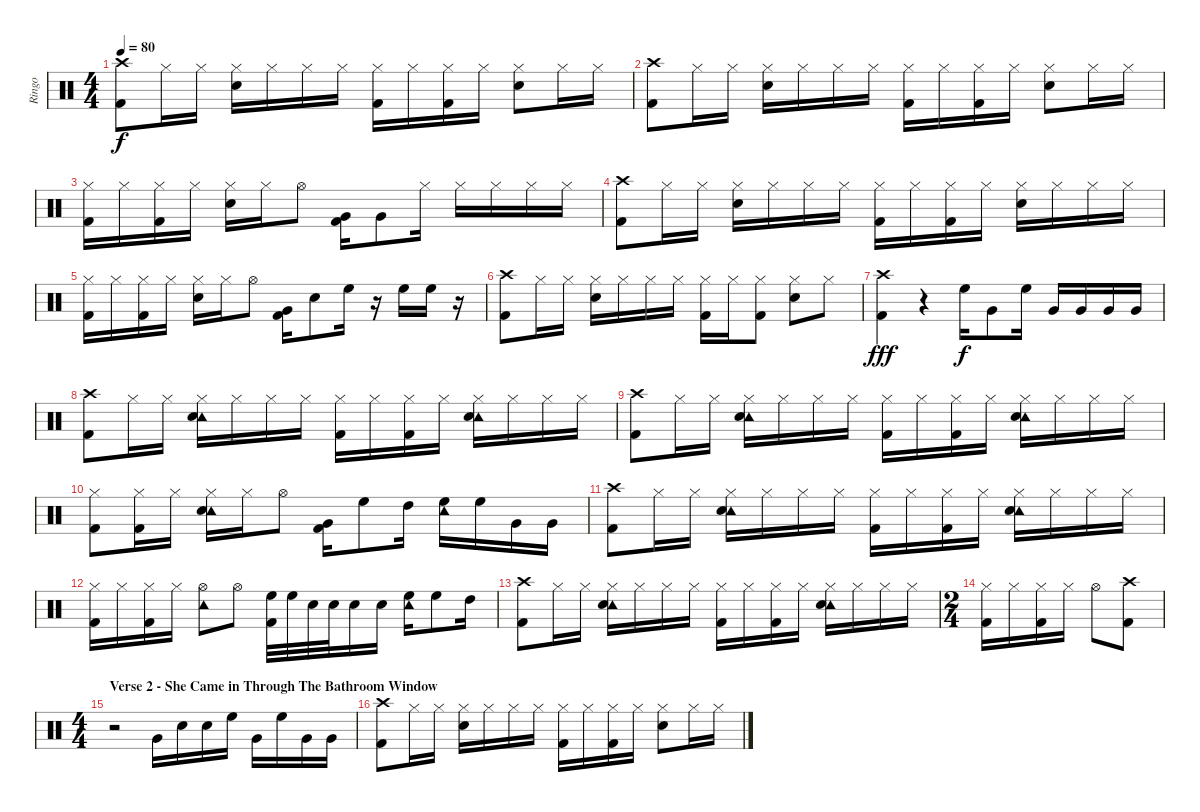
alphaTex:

\track ("Ringo" "Ringo") {instrument percussion}
\staff {score}
\articulation defaults
\ts (4 4)
\tempo 80
\clef neutral
\ks c
("Crash high (hit)" "Kick (hit) 2").8{dy f} "Hi-Hat (closed)".16 "Hi-Hat (closed)".16 ("Hi-Hat (closed)" "Snare (hit) 2").16 "Hi-Hat (closed)".16 "Hi-Hat (closed)".16 "Hi-Hat (closed)".16 ("Hi-Hat (closed)" "Kick (hit) 2").16 "Hi-Hat (closed)".16 ("Hi-Hat (closed)" "Kick (hit) 2").16 "Hi-Hat (closed)".16 ("Hi-Hat (closed)" "Snare (hit) 2").8 "Hi-Hat (closed)".16 "Hi-Hat (closed)".16 |
("Crash high (hit)" "Kick (hit) 2").8 "Hi-Hat (closed)".16 "Hi-Hat (closed)".16 ("Hi-Hat (closed)" "Snare (hit) 2").16 "Hi-Hat (closed)".16 "Hi-Hat (closed)".16 "Hi-Hat (closed)".16 ("Hi-Hat (closed)" "Kick (hit) 2").16 "Hi-Hat (closed)".16 ("Hi-Hat (closed)" "Kick (hit) 2").16 "Hi-Hat (closed)".16 ("Hi-Hat (closed)" "Snare (hit) 2").8 "Hi-Hat (closed)".16 "Hi-Hat (closed)".16 |
("Hi-Hat (closed)" "Kick (hit) 2").16 "Hi-Hat (closed)".16 ("Hi-Hat (closed)" "Kick (hit) 2").16 "Hi-Hat (closed)".16 ("Hi-Hat (closed)" "Snare (hit) 2").16 "Hi-Hat (closed)".16 "Hi-Hat (open)".8 ("Very Low Tom (hit)" "Kick (hit) 2").16 "Very Low Tom (hit)".8 "Hi-Hat (closed)".16 "Hi-Hat (closed)".16 "Hi-Hat (closed)".16 "Hi-Hat (closed)".16 "Hi-Hat (closed)".16 |
("Crash high (hit)" "Kick (hit) 2").8 "Hi-Hat (closed)".16 "Hi-Hat (closed)".16 ("Hi-Hat (closed)" "Snare (hit) 2").16 "Hi-Hat (closed)".16 "Hi-Hat (closed)".16 "Hi-Hat (closed)".16 ("Hi-Hat (closed)" "Kick (hit) 2").16 "Hi-Hat (closed)".16 ("Hi-Hat (closed)" "Kick (hit) 2").16 "Hi-Hat (closed)".16 ("Hi-Hat (closed)" "Snare (hit) 2").16 "Hi-Hat (closed)".16 "Hi-Hat (closed)".16 "Hi-Hat (closed)".16 |
("Hi-Hat (closed)" "Kick (hit) 2").16 "Hi-Hat (closed)".16 ("Hi-Hat (closed)" "Kick (hit) 2").16 "Hi-Hat (closed)".16 ("Hi-Hat (closed)" "Snare (hit) 2").16 "Hi-Hat (closed)".16 "Hi-Hat (open)".8 ("Very Low Tom (hit)" "Kick (hit) 2").16 "Snare (hit) 2".8 "High Floor Tom (hit)".16 r.16 "High Floor Tom (hit)".16 "High Floor Tom (hit)".16 r.16 |
("Crash high (hit)" "Kick (hit) 2").8 "Hi-Hat (closed)".16 "Hi-Hat (closed)".16 ("Hi-Hat (closed)" "Snare (hit) 2").16 "Hi-Hat (closed)".16 "Hi-Hat (closed)".16 "Hi-Hat (closed)".16 ("Hi-Hat (closed)" "Kick (hit) 2").16 "Hi-Hat (closed)".16 ("Hi-Hat (closed)" "Kick (hit) 2").8 ("Hi-Hat (closed)" "Snare (hit) 2").8 "Hi-Hat (closed)".8 |
("Crash high (hit)" "Kick (hit) 2").4{dy fff} r.4 "High Floor Tom (hit)".16{dy f} "Very Low Tom (hit)".8 "High Floor Tom (hit)".16 "Very Low Tom (hit)".16 "Very Low Tom (hit)".16 "Very Low Tom (hit)".16 "Very Low Tom (hit)".16 |
("Crash high (hit)" "Kick (hit) 2").8 "Hi-Hat (closed)".16 "Hi-Hat (closed)".16 ("Tambourine (hit)" "Hi-Hat (closed)" "Snare (hit) 2").16 "Hi-Hat (closed)".16 "Hi-Hat (closed)".16 "Hi-Hat (closed)".16 ("Hi-Hat (closed)" "Kick (hit) 2").16 "Hi-Hat (closed)".16 ("Hi-Hat (closed)" "Kick (hit) 2").16 "Hi-Hat (closed)".16 ("Tambourine (hit)" "Hi-Hat (closed)" "Snare (hit) 2").16 "Hi-Hat (closed)".16 "Hi-Hat (closed)".16 "Hi-Hat (closed)".16 |
("Crash high (hit)" "Kick (hit) 2").8 "Hi-Hat (closed)".16 "Hi-Hat (closed)".16 ("Tambourine (hit)" "Hi-Hat (closed)" "Snare (hit) 2").16 "Hi-Hat (closed)".16 "Hi-Hat (closed)".16 "Hi-Hat (closed)".16 ("Hi-Hat (closed)" "Kick (hit) 2").16 "Hi-Hat (closed)".16 ("Hi-Hat (closed)" "Kick (hit) 2").16 "Hi-Hat (closed)".16 ("Tambourine (hit)" "Hi-Hat (closed)" "Snare (hit) 2").16 "Hi-Hat (closed)".16 "Hi-Hat (closed)".16 "Hi-Hat (closed)".16 |
("Hi-Hat (closed)" "Kick (hit) 2").8 ("Hi-Hat (closed)" "Kick (hit) 2").16 "Hi-Hat (closed)".16 ("Tambourine (hit)" "Hi-Hat (closed)" "Snare (hit) 2").16 "Hi-Hat (closed)".16 "Hi-Hat (open)".8 ("Very Low Tom (hit)" "Kick (hit) 2").16 "High Floor Tom (hit)".8 "High Tom (hit)".16 ("Tambourine (hit)" "High Floor Tom (hit)").16 "High Floor Tom (hit)".16 "Very Low Tom (hit)".16 "Very Low Tom (hit)".16 |
("Crash high (hit)" "Kick (hit) 2").8 "Hi-Hat (closed)".16 "Hi-Hat (closed)".16 ("Tambourine (hit)" "Hi-Hat (closed)" "Snare (hit) 2").16 "Hi-Hat (closed)".16 "Hi-Hat (closed)".16 "Hi-Hat (closed)".16 ("Hi-Hat (closed)" "Kick (hit) 2").16 "Hi-Hat (closed)".16 ("Hi-Hat (closed)" "Kick (hit) 2").16 "Hi-Hat (closed)".16 ("Tambourine (hit)" "Hi-Hat (closed)" "Snare (hit) 2").16 "Hi-Hat (closed)".16 "Hi-Hat (closed)".16 "Hi-Hat (closed)".16 |
("Hi-Hat (closed)" "Kick (hit) 2").16 "Hi-Hat (closed)".16 ("Hi-Hat (closed)" "Kick (hit) 2").16 "Hi-Hat (closed)".16 ("Tambourine (hit)" "Hi-Hat (open)").8 "Hi-Hat (open)".8 ("High Floor Tom (hit)" "Kick (hit) 2").32 "High Floor Tom (hit)".32 "Snare (hit) 2".32 "Snare (hit) 2".32 "Snare (hit) 2".16 "Snare (hit) 2".16 ("Tambourine (hit)" "High Floor Tom (hit)").16 "High Floor Tom (hit)".8 "High Tom (hit)".16 |
("Crash high (hit)" "Kick (hit) 2").8 "Hi-Hat (closed)".16 "Hi-Hat (closed)".16 ("Tambourine (hit)" "Hi-Hat (closed)" "Snare (hit) 2").16 "Hi-Hat (closed)".16 "Hi-Hat (closed)".16 "Hi-Hat (closed)".16 ("Hi-Hat (closed)" "Kick (hit) 2").16 "Hi-Hat (closed)".16 ("Hi-Hat (closed)" "Kick (hit) 2").16 "Hi-Hat (closed)".16 ("Tambourine (hit)" "Hi-Hat (closed)" "Snare (hit) 2").16 "Hi-Hat (closed)".16 "Hi-Hat (closed)".16 "Hi-Hat (closed)".16 |
\ts (2 4)
("Hi-Hat (closed)" "Kick (hit) 2").16 "Hi-Hat (closed)".16 ("Hi-Hat (closed)" "Kick (hit) 2").16 "Hi-Hat (closed)".16 "Hi-Hat (open)".8 ("Crash high (hit)" "Kick (hit) 2").8 |
\ts (4 4)
\section ("" "Verse 2 - She Came in Through The Bathroom Window")
r.2 "Very Low Tom (hit)".16 "Snare (hit) 2".16 "Snare (hit) 2".16 "High Floor Tom (hit)".16 "Very Low Tom (hit)".16 "High Floor Tom (hit)".16 "Very Low Tom (hit)".16 "Very Low Tom (hit)".16 |
("Crash high (hit)" "Kick (hit) 2").8 "Hi-Hat (closed)".16 "Hi-Hat (closed)".16 ("Hi-Hat (closed)" "Snare (hit) 2").16 "Hi-Hat (closed)".16 "Hi-Hat (closed)".16 "Hi-Hat (closed)".16 ("Hi-Hat (closed)" "Kick (hit) 2").16 "Hi-Hat (closed)".16 ("Hi-Hat (closed)" "Kick (hit) 2").16 "Hi-Hat (closed)".16 ("Hi-Hat (closed)" "Snare (hit) 2").8 "Hi-Hat (closed)".16 "Hi-Hat (closed)".16
